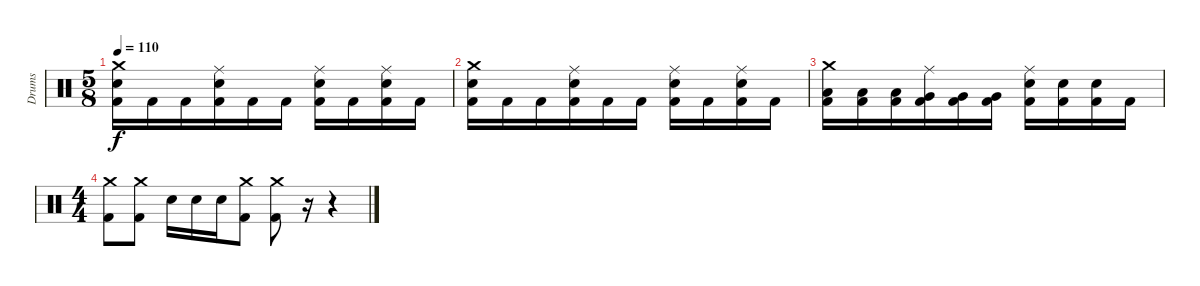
\track ("Drums" "Drums") {instrument percussion}
\staff {score}
\articulation defaults
\ts (5 8)
\tempo 110
\clef neutral
\ks c
("Crash medium (hit)" "Electric Snare (hit)" "Kick (hit) 2").16{dy f} "Kick (hit) 2".16 "Kick (hit) 2".16 ("Ride (middle)" "Electric Snare (hit)" "Kick (hit) 2").16 "Kick (hit) 2".16 "Kick (hit) 2".16 ("Ride (middle)" "Electric Snare (hit)" "Kick (hit) 2").16 "Kick (hit) 2".16 ("Ride (middle)" "Electric Snare (hit)" "Kick (hit) 2").16 "Kick (hit) 2".16 |
("Crash medium (hit)" "Electric Snare (hit)" "Kick (hit) 2").16 "Kick (hit) 2".16 "Kick (hit) 2".16 ("Ride (middle)" "Electric Snare (hit)" "Kick (hit) 2").16 "Kick (hit) 2".16 "Kick (hit) 2".16 ("Ride (middle)" "Electric Snare (hit)" "Kick (hit) 2").16 "Kick (hit) 2".16 ("Ride (middle)" "Electric Snare (hit)" "Kick (hit) 2").16 "Kick (hit) 2".16 |
("Crash medium (hit)" "Low Tom (hit)" "Kick (hit) 2").16 ("Low Tom (hit)" "Kick (hit) 2").16 ("Low Tom (hit)" "Kick (hit) 2").16 ("Ride (middle)" "Very Low Tom (hit)" "Kick (hit) 2").16 ("Very Low Tom (hit)" "Kick (hit) 2").16 ("Very Low Tom (hit)" "Kick (hit) 2").16 ("Ride (middle)" "Electric Snare (hit)" "Kick (hit) 2").16 ("Electric Snare (hit)" "Kick (hit) 2").16 ("Electric Snare (hit)" "Kick (hit) 2").16 "Kick (hit) 2".16 |
\ts (4 4)
("Crash medium (hit)" "Kick (hit) 2").8 ("Crash medium (hit)" "Kick (hit) 2").8 "Electric Snare (hit)".16 "Electric Snare (hit)".16 "Electric Snare (hit)".16 ("Crash medium (hit)" "Kick (hit) 2").8 ("Crash medium (hit)" "Kick (hit) 2").8 r.16 r.4
